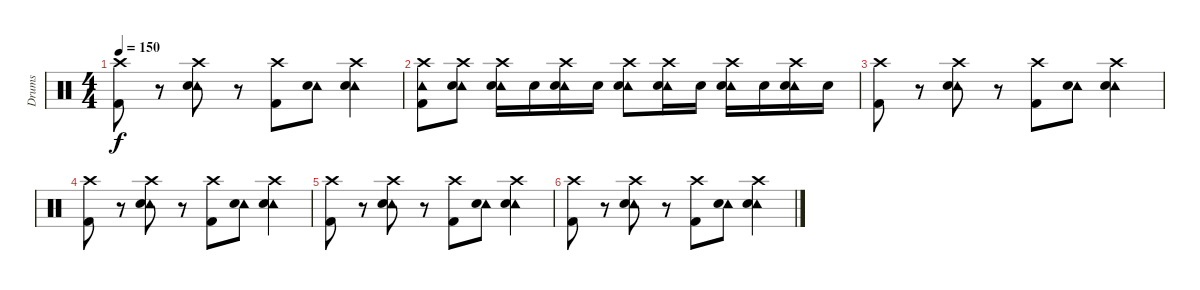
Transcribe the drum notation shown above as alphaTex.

\track ("Drums" "Drums") {instrument percussion}
\staff {score}
\articulation defaults
\ts (4 4)
\tempo 150
\clef neutral
\ks c
("Crash high (hit)" "Kick (hit) 2").8{dy f} r.8 ("Tambourine (hit)" "Crash high (hit)" "Snare (hit) 2").8 r.8 ("Crash high (hit)" "Kick (hit) 2").8 ("Tambourine (hit)" "Snare (hit) 2").8 ("Tambourine (hit)" "Crash high (hit)" "Snare (hit) 2").4 |
("Tambourine (hit)" "Crash high (hit)" "Kick (hit) 2").8 ("Tambourine (hit)" "Crash high (hit)" "Snare (hit) 2").8 ("Tambourine (hit)" "Crash high (hit)" "Snare (hit) 2").16 "Snare (hit) 2".16 ("Tambourine (hit)" "Crash high (hit)" "Snare (hit) 2").16 "Snare (hit) 2".16 ("Tambourine (hit)" "Crash high (hit)" "Snare (hit) 2").8 ("Tambourine (hit)" "Crash high (hit)" "Snare (hit) 2").16 "Snare (hit) 2".16 ("Tambourine (hit)" "Crash high (hit)" "Snare (hit) 2").16 "Snare (hit) 2".16 ("Tambourine (hit)" "Crash high (hit)" "Snare (hit) 2").16 "Snare (hit) 2".16 |
("Crash high (hit)" "Kick (hit) 2").8{volume 0} r.8 ("Tambourine (hit)" "Crash high (hit)" "Snare (hit) 2").8 r.8 ("Crash high (hit)" "Kick (hit) 2").8 ("Tambourine (hit)" "Snare (hit) 2").8 ("Tambourine (hit)" "Crash high (hit)" "Snare (hit) 2").4 |
("Crash high (hit)" "Kick (hit) 2").8 r.8 ("Tambourine (hit)" "Crash high (hit)" "Snare (hit) 2").8 r.8 ("Crash high (hit)" "Kick (hit) 2").8 ("Tambourine (hit)" "Snare (hit) 2").8 ("Tambourine (hit)" "Crash high (hit)" "Snare (hit) 2").4 |
("Crash high (hit)" "Kick (hit) 2").8 r.8 ("Tambourine (hit)" "Crash high (hit)" "Snare (hit) 2").8 r.8 ("Crash high (hit)" "Kick (hit) 2").8 ("Tambourine (hit)" "Snare (hit) 2").8 ("Tambourine (hit)" "Crash high (hit)" "Snare (hit) 2").4 |
("Crash high (hit)" "Kick (hit) 2").8 r.8 ("Tambourine (hit)" "Crash high (hit)" "Snare (hit) 2").8 r.8 ("Crash high (hit)" "Kick (hit) 2").8 ("Tambourine (hit)" "Snare (hit) 2").8 ("Tambourine (hit)" "Crash high (hit)" "Snare (hit) 2").4
